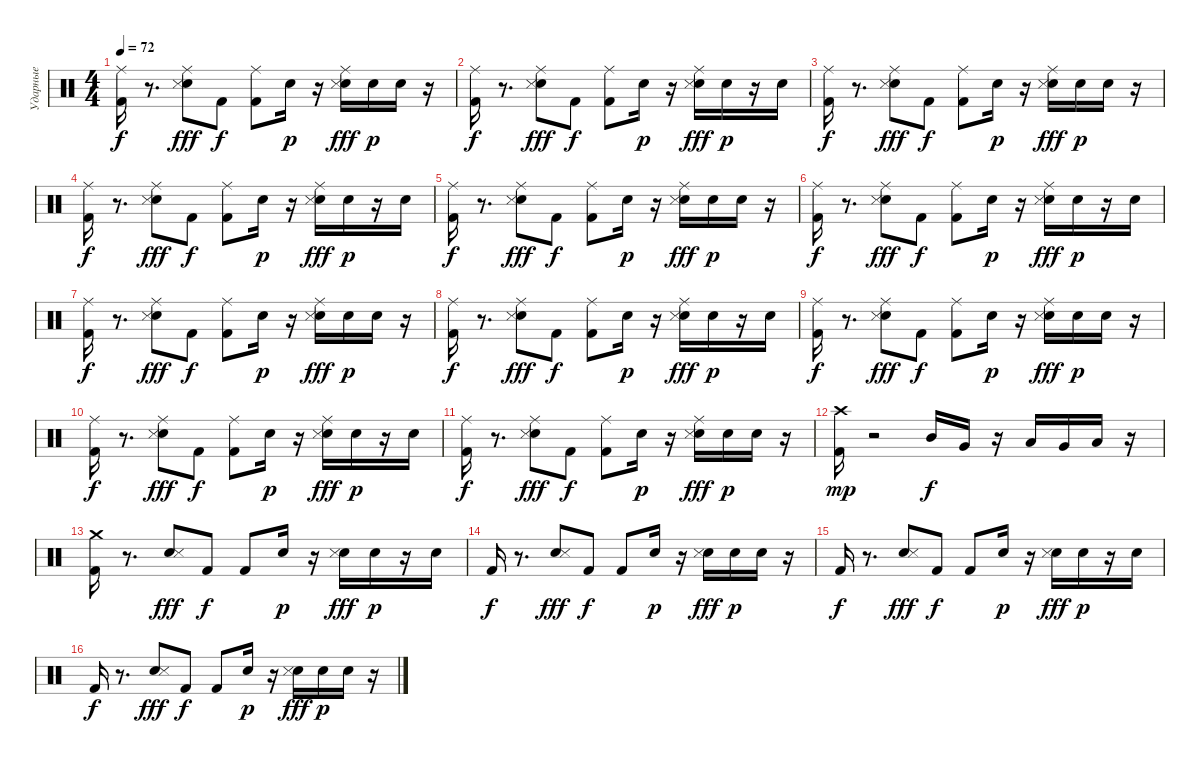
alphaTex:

\track ("Ударные" "Ударные") {instrument percussion}
\staff {score}
\articulation defaults
\ts (4 4)
\tempo 72
\clef neutral
\ks c
("Kick (hit) 2" "Ride (middle)").16{dy f} r.8{d} ("Electric Snare (hit)" "Snare (side stick) 3" "Ride (middle)").8{dy fff} "Kick (hit) 2".8{dy f} ("Kick (hit) 2" "Ride (middle)").8 "Snare (hit) 2".16{dy p} r.16 ("Electric Snare (hit)" "Snare (side stick) 3" "Ride (middle)").16{dy fff} "Snare (hit) 2".16{dy p} "Snare (hit) 2".16 r.16 |
("Kick (hit) 2" "Ride (middle)").16{dy f} r.8{d} ("Electric Snare (hit)" "Snare (side stick) 3" "Ride (middle)").8{dy fff} "Kick (hit) 2".8{dy f} ("Kick (hit) 2" "Ride (middle)").8 "Snare (hit) 2".16{dy p} r.16 ("Electric Snare (hit)" "Snare (side stick) 3" "Ride (middle)").16{dy fff} "Snare (hit) 2".16{dy p} r.16 "Snare (hit) 2".16 |
("Kick (hit) 2" "Ride (middle)").16{dy f} r.8{d} ("Electric Snare (hit)" "Snare (side stick) 3" "Ride (middle)").8{dy fff} "Kick (hit) 2".8{dy f} ("Kick (hit) 2" "Ride (middle)").8 "Snare (hit) 2".16{dy p} r.16 ("Electric Snare (hit)" "Snare (side stick) 3" "Ride (middle)").16{dy fff} "Snare (hit) 2".16{dy p} "Snare (hit) 2".16 r.16 |
("Kick (hit) 2" "Ride (middle)").16{dy f} r.8{d} ("Electric Snare (hit)" "Snare (side stick) 3" "Ride (middle)").8{dy fff} "Kick (hit) 2".8{dy f} ("Kick (hit) 2" "Ride (middle)").8 "Snare (hit) 2".16{dy p} r.16 ("Electric Snare (hit)" "Snare (side stick) 3" "Ride (middle)").16{dy fff} "Snare (hit) 2".16{dy p} r.16 "Snare (hit) 2".16 |
("Kick (hit) 2" "Ride (middle)").16{dy f} r.8{d} ("Electric Snare (hit)" "Snare (side stick) 3" "Ride (middle)").8{dy fff} "Kick (hit) 2".8{dy f} ("Kick (hit) 2" "Ride (middle)").8 "Snare (hit) 2".16{dy p} r.16 ("Electric Snare (hit)" "Snare (side stick) 3" "Ride (middle)").16{dy fff} "Snare (hit) 2".16{dy p} "Snare (hit) 2".16 r.16 |
("Kick (hit) 2" "Ride (middle)").16{dy f} r.8{d} ("Electric Snare (hit)" "Snare (side stick) 3" "Ride (middle)").8{dy fff} "Kick (hit) 2".8{dy f} ("Kick (hit) 2" "Ride (middle)").8 "Snare (hit) 2".16{dy p} r.16 ("Electric Snare (hit)" "Snare (side stick) 3" "Ride (middle)").16{dy fff} "Snare (hit) 2".16{dy p} r.16 "Snare (hit) 2".16 |
("Kick (hit) 2" "Ride (middle)").16{dy f} r.8{d} ("Electric Snare (hit)" "Snare (side stick) 3" "Ride (middle)").8{dy fff} "Kick (hit) 2".8{dy f} ("Kick (hit) 2" "Ride (middle)").8 "Snare (hit) 2".16{dy p} r.16 ("Electric Snare (hit)" "Snare (side stick) 3" "Ride (middle)").16{dy fff} "Snare (hit) 2".16{dy p} "Snare (hit) 2".16 r.16 |
("Kick (hit) 2" "Ride (middle)").16{dy f} r.8{d} ("Electric Snare (hit)" "Snare (side stick) 3" "Ride (middle)").8{dy fff} "Kick (hit) 2".8{dy f} ("Kick (hit) 2" "Ride (middle)").8 "Snare (hit) 2".16{dy p} r.16 ("Electric Snare (hit)" "Snare (side stick) 3" "Ride (middle)").16{dy fff} "Snare (hit) 2".16{dy p} r.16 "Snare (hit) 2".16 |
("Kick (hit) 2" "Ride (middle)").16{dy f} r.8{d} ("Electric Snare (hit)" "Snare (side stick) 3" "Ride (middle)").8{dy fff} "Kick (hit) 2".8{dy f} ("Kick (hit) 2" "Ride (middle)").8 "Snare (hit) 2".16{dy p} r.16 ("Electric Snare (hit)" "Snare (side stick) 3" "Ride (middle)").16{dy fff} "Snare (hit) 2".16{dy p} "Snare (hit) 2".16 r.16 |
("Kick (hit) 2" "Ride (middle)").16{dy f} r.8{d} ("Electric Snare (hit)" "Snare (side stick) 3" "Ride (middle)").8{dy fff} "Kick (hit) 2".8{dy f} ("Kick (hit) 2" "Ride (middle)").8 "Snare (hit) 2".16{dy p} r.16 ("Electric Snare (hit)" "Snare (side stick) 3" "Ride (middle)").16{dy fff} "Snare (hit) 2".16{dy p} r.16 "Snare (hit) 2".16 |
("Kick (hit) 2" "Ride (middle)").16{dy f} r.8{d} ("Electric Snare (hit)" "Snare (side stick) 3" "Ride (middle)").8{dy fff} "Kick (hit) 2".8{dy f} ("Kick (hit) 2" "Ride (middle)").8 "Snare (hit) 2".16{dy p} r.16 ("Electric Snare (hit)" "Snare (side stick) 3" "Ride (middle)").16{dy fff} "Snare (hit) 2".16{dy p} "Snare (hit) 2".16 r.16 |
("Kick (hit) 2" "Crash high (hit)").16{dy mp} r.2 "Mid Tom (hit)".16{dy f} "Very Low Tom (hit)".16 r.16 "Low Tom (hit)".16 "Very Low Tom (hit)".16 "Low Floor Tom (hit)".16 r.16 |
("Kick (hit) 2" "Crash medium (hit)").16 r.8{d} ("Electric Snare (hit)" "Snare (side stick) 3").8{dy fff} "Kick (hit) 2".8{dy f} "Kick (hit) 2".8 "Snare (hit) 2".16{dy p} r.16 ("Electric Snare (hit)" "Snare (side stick) 3").16{dy fff} "Snare (hit) 2".16{dy p} r.16 "Snare (hit) 2".16 |
"Kick (hit) 2".16{dy f} r.8{d} ("Electric Snare (hit)" "Snare (side stick) 3").8{dy fff} "Kick (hit) 2".8{dy f} "Kick (hit) 2".8 "Snare (hit) 2".16{dy p} r.16 ("Electric Snare (hit)" "Snare (side stick) 3").16{dy fff} "Snare (hit) 2".16{dy p} "Snare (hit) 2".16 r.16 |
"Kick (hit) 2".16{dy f} r.8{d} ("Electric Snare (hit)" "Snare (side stick) 3").8{dy fff} "Kick (hit) 2".8{dy f} "Kick (hit) 2".8 "Snare (hit) 2".16{dy p} r.16 ("Electric Snare (hit)" "Snare (side stick) 3").16{dy fff} "Snare (hit) 2".16{dy p} r.16 "Snare (hit) 2".16 |
"Kick (hit) 2".16{dy f} r.8{d} ("Electric Snare (hit)" "Snare (side stick) 3").8{dy fff} "Kick (hit) 2".8{dy f} "Kick (hit) 2".8 "Snare (hit) 2".16{dy p} r.16 ("Electric Snare (hit)" "Snare (side stick) 3").16{dy fff} "Snare (hit) 2".16{dy p} "Snare (hit) 2".16 r.16
